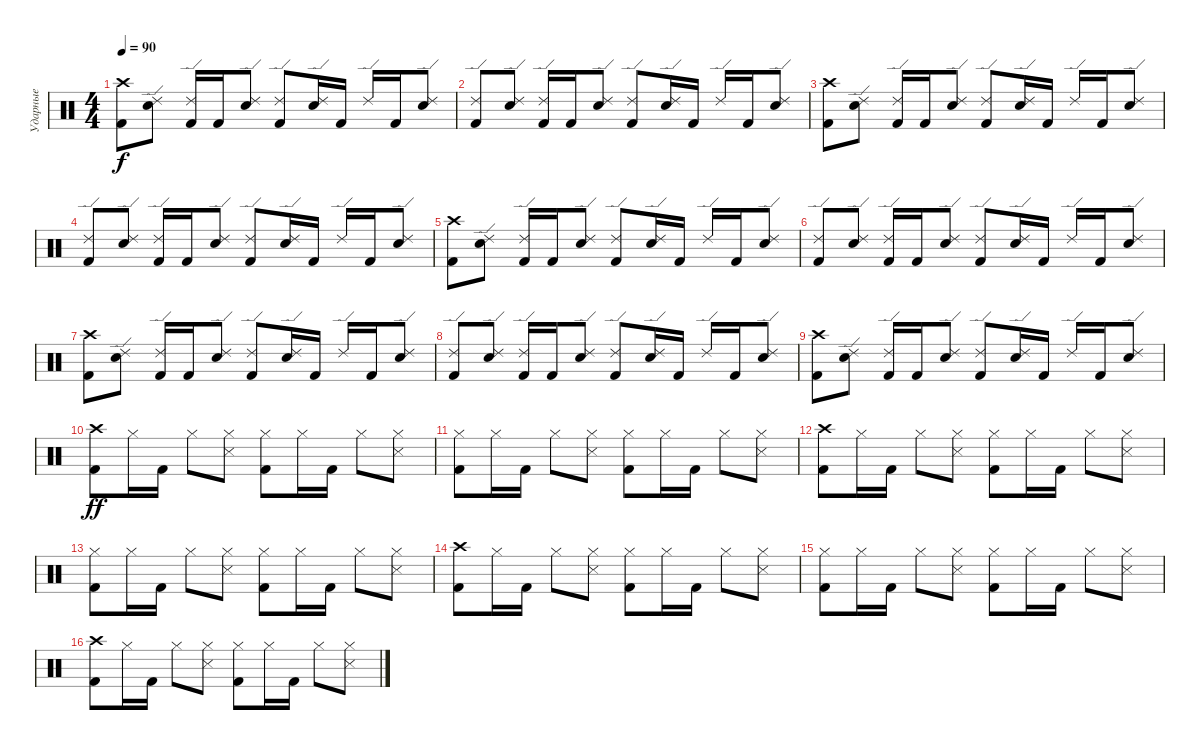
\track ("Ударные" "Ударные") {instrument percussion}
\staff {score}
\articulation defaults
\ts (4 4)
\tempo 90
\clef neutral
\ks c
("Kick (hit) 2" "Crash high (hit)").8{dy f} ("Electric Snare (hit)" "Ride (edge) 2").8 ("Kick (hit) 2" "Ride (edge) 2").16 "Kick (hit) 2".16 ("Electric Snare (hit)" "Ride (edge) 2").8 ("Kick (hit) 2" "Ride (edge) 2").8 ("Electric Snare (hit)" "Ride (edge) 2").16 "Kick (hit) 2".16 "Ride (edge) 2".16 "Kick (hit) 2".16 ("Electric Snare (hit)" "Ride (edge) 2").8 |
("Kick (hit) 2" "Ride (edge) 2").8 ("Electric Snare (hit)" "Ride (edge) 2").8 ("Kick (hit) 2" "Ride (edge) 2").16 "Kick (hit) 2".16 ("Electric Snare (hit)" "Ride (edge) 2").8 ("Kick (hit) 2" "Ride (edge) 2").8 ("Electric Snare (hit)" "Ride (edge) 2").16 "Kick (hit) 2".16 "Ride (edge) 2".16 "Kick (hit) 2".16 ("Electric Snare (hit)" "Ride (edge) 2").8 |
("Kick (hit) 2" "Crash high (hit)").8 ("Electric Snare (hit)" "Ride (edge) 2").8 ("Kick (hit) 2" "Ride (edge) 2").16 "Kick (hit) 2".16 ("Electric Snare (hit)" "Ride (edge) 2").8 ("Kick (hit) 2" "Ride (edge) 2").8 ("Electric Snare (hit)" "Ride (edge) 2").16 "Kick (hit) 2".16 "Ride (edge) 2".16 "Kick (hit) 2".16 ("Electric Snare (hit)" "Ride (edge) 2").8 |
("Kick (hit) 2" "Ride (edge) 2").8 ("Electric Snare (hit)" "Ride (edge) 2").8 ("Kick (hit) 2" "Ride (edge) 2").16 "Kick (hit) 2".16 ("Electric Snare (hit)" "Ride (edge) 2").8 ("Kick (hit) 2" "Ride (edge) 2").8 ("Electric Snare (hit)" "Ride (edge) 2").16 "Kick (hit) 2".16 "Ride (edge) 2".16 "Kick (hit) 2".16 ("Electric Snare (hit)" "Ride (edge) 2").8 |
("Kick (hit) 2" "Crash high (hit)").8 ("Electric Snare (hit)" "Ride (edge) 2").8 ("Kick (hit) 2" "Ride (edge) 2").16 "Kick (hit) 2".16 ("Electric Snare (hit)" "Ride (edge) 2").8 ("Kick (hit) 2" "Ride (edge) 2").8 ("Electric Snare (hit)" "Ride (edge) 2").16 "Kick (hit) 2".16 "Ride (edge) 2".16 "Kick (hit) 2".16 ("Electric Snare (hit)" "Ride (edge) 2").8 |
("Kick (hit) 2" "Ride (edge) 2").8 ("Electric Snare (hit)" "Ride (edge) 2").8 ("Kick (hit) 2" "Ride (edge) 2").16 "Kick (hit) 2".16 ("Electric Snare (hit)" "Ride (edge) 2").8 ("Kick (hit) 2" "Ride (edge) 2").8 ("Electric Snare (hit)" "Ride (edge) 2").16 "Kick (hit) 2".16 "Ride (edge) 2".16 "Kick (hit) 2".16 ("Electric Snare (hit)" "Ride (edge) 2").8 |
("Kick (hit) 2" "Crash high (hit)").8 ("Electric Snare (hit)" "Ride (edge) 2").8 ("Kick (hit) 2" "Ride (edge) 2").16 "Kick (hit) 2".16 ("Electric Snare (hit)" "Ride (edge) 2").8 ("Kick (hit) 2" "Ride (edge) 2").8 ("Electric Snare (hit)" "Ride (edge) 2").16 "Kick (hit) 2".16 "Ride (edge) 2".16 "Kick (hit) 2".16 ("Electric Snare (hit)" "Ride (edge) 2").8 |
("Kick (hit) 2" "Ride (edge) 2").8 ("Electric Snare (hit)" "Ride (edge) 2").8 ("Kick (hit) 2" "Ride (edge) 2").16 "Kick (hit) 2".16 ("Electric Snare (hit)" "Ride (edge) 2").8 ("Kick (hit) 2" "Ride (edge) 2").8 ("Electric Snare (hit)" "Ride (edge) 2").16 "Kick (hit) 2".16 "Ride (edge) 2".16 "Kick (hit) 2".16 ("Electric Snare (hit)" "Ride (edge) 2").8 |
("Kick (hit) 2" "Crash high (hit)").8 ("Electric Snare (hit)" "Ride (edge) 2").8 ("Kick (hit) 2" "Ride (edge) 2").16 "Kick (hit) 2".16 ("Electric Snare (hit)" "Ride (edge) 2").8 ("Kick (hit) 2" "Ride (edge) 2").8 ("Electric Snare (hit)" "Ride (edge) 2").16 "Kick (hit) 2".16 "Ride (edge) 2".16 "Kick (hit) 2".16 ("Electric Snare (hit)" "Ride (edge) 2").8 |
("Crash high (hit)" "Kick (hit) 2").8{dy ff} "Hi-Hat (closed)".16 "Kick (hit) 2".16 "Hi-Hat (closed)".8 ("Hi-Hat (closed)" "Snare (side stick) 3").8 ("Hi-Hat (closed)" "Kick (hit) 2").8 "Hi-Hat (closed)".16 "Kick (hit) 2".16 "Hi-Hat (closed)".8 ("Hi-Hat (closed)" "Snare (side stick) 3").8 |
("Hi-Hat (closed)" "Kick (hit) 2").8 "Hi-Hat (closed)".16 "Kick (hit) 2".16 "Hi-Hat (closed)".8 ("Hi-Hat (closed)" "Snare (side stick) 3").8 ("Hi-Hat (closed)" "Kick (hit) 2").8 "Hi-Hat (closed)".16 "Kick (hit) 2".16 "Hi-Hat (closed)".8 ("Hi-Hat (closed)" "Snare (side stick) 3").8 |
("Crash high (hit)" "Kick (hit) 2").8 "Hi-Hat (closed)".16 "Kick (hit) 2".16 "Hi-Hat (closed)".8 ("Hi-Hat (closed)" "Snare (side stick) 3").8 ("Hi-Hat (closed)" "Kick (hit) 2").8 "Hi-Hat (closed)".16 "Kick (hit) 2".16 "Hi-Hat (closed)".8 ("Hi-Hat (closed)" "Snare (side stick) 3").8 |
("Hi-Hat (closed)" "Kick (hit) 2").8 "Hi-Hat (closed)".16 "Kick (hit) 2".16 "Hi-Hat (closed)".8 ("Hi-Hat (closed)" "Snare (side stick) 3").8 ("Hi-Hat (closed)" "Kick (hit) 2").8 "Hi-Hat (closed)".16 "Kick (hit) 2".16 "Hi-Hat (closed)".8 ("Hi-Hat (closed)" "Snare (side stick) 3").8 |
("Crash high (hit)" "Kick (hit) 2").8 "Hi-Hat (closed)".16 "Kick (hit) 2".16 "Hi-Hat (closed)".8 ("Hi-Hat (closed)" "Snare (side stick) 3").8 ("Hi-Hat (closed)" "Kick (hit) 2").8 "Hi-Hat (closed)".16 "Kick (hit) 2".16 "Hi-Hat (closed)".8 ("Hi-Hat (closed)" "Snare (side stick) 3").8 |
("Hi-Hat (closed)" "Kick (hit) 2").8 "Hi-Hat (closed)".16 "Kick (hit) 2".16 "Hi-Hat (closed)".8 ("Hi-Hat (closed)" "Snare (side stick) 3").8 ("Hi-Hat (closed)" "Kick (hit) 2").8 "Hi-Hat (closed)".16 "Kick (hit) 2".16 "Hi-Hat (closed)".8 ("Hi-Hat (closed)" "Snare (side stick) 3").8 |
("Crash high (hit)" "Kick (hit) 2").8 "Hi-Hat (closed)".16 "Kick (hit) 2".16 "Hi-Hat (closed)".8 ("Hi-Hat (closed)" "Snare (side stick) 3").8 ("Hi-Hat (closed)" "Kick (hit) 2").8 "Hi-Hat (closed)".16 "Kick (hit) 2".16 "Hi-Hat (closed)".8 ("Hi-Hat (closed)" "Snare (side stick) 3").8
